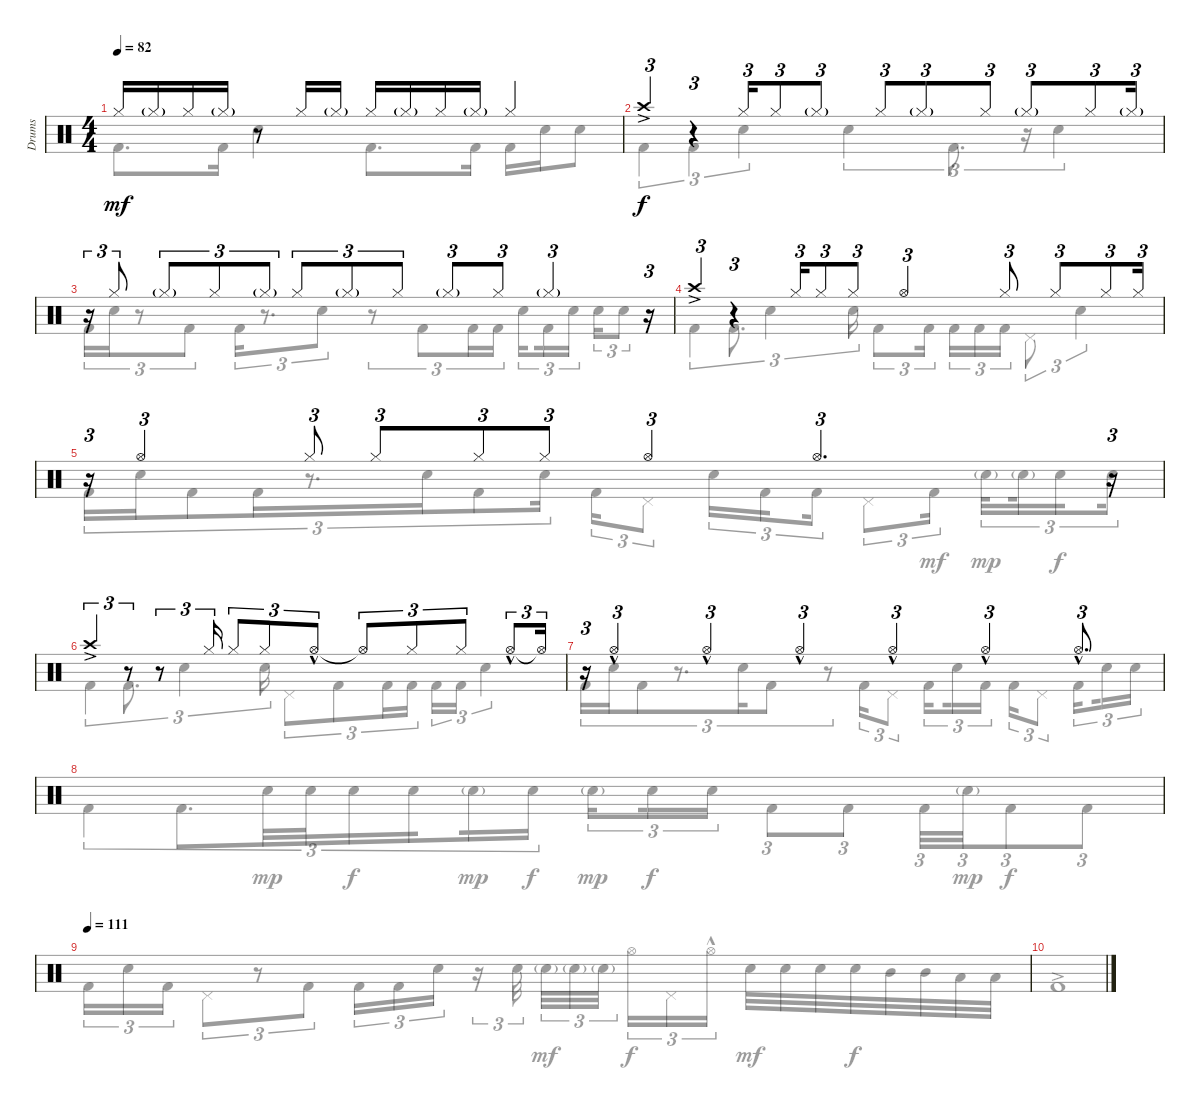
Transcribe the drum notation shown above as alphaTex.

\track ("Drums" "Drums") {instrument percussion}
\staff {score}
\articulation defaults
\voice
\ts (4 4)
\tempo 82
\clef neutral
\ks c "Hi-Hat (closed)".16{dy mf} "Hi-Hat (closed)"{g}.16 "Hi-Hat (closed)".16 "Hi-Hat (closed)"{g}.16
r.8 "Hi-Hat (closed)".16 "Hi-Hat (closed)"{g}.16 "Hi-Hat (closed)".16 "Hi-Hat (closed)"{g}.16 "Hi-Hat (closed)".16 "Hi-Hat (closed)"{g}.16 "Hi-Hat (closed)".4 |
"Crash high (hit)"{ac}.4{tu (3 2) dy f} r.4{tu (3 2)} "Hi-Hat (closed)".16{tu (3 2)} "Hi-Hat (closed)".8{tu (3 2)} "Hi-Hat (closed)"{g}.8{tu (3 2)} "Hi-Hat (closed)".8{tu (3 2)} "Hi-Hat (closed)"{g}.8{tu (3 2)} "Hi-Hat (closed)".8{tu (3 2)} "Hi-Hat (closed)"{g}.8{tu (3 2)} "Hi-Hat (closed)".8{tu (3 2)} "Hi-Hat (closed)"{g}.16{tu (3 2)} |
r.16{tu (3 2)} "Hi-Hat (closed)".8{tu (3 2)} "Hi-Hat (closed)"{g}.8{tu (3 2)} "Hi-Hat (closed)".8{tu (3 2)} "Hi-Hat (closed)"{g}.8{tu (3 2)} "Hi-Hat (closed)".8{tu (3 2)} "Hi-Hat (closed)"{g}.8{tu (3 2)} "Hi-Hat (closed)".8{tu (3 2)} "Hi-Hat (closed)"{g}.8{tu (3 2)} "Hi-Hat (closed)".8{tu (3 2)} "Hi-Hat (closed)"{g}.4{tu (3 2)} r.16{tu (3 2)} |
"Crash high (hit)"{ac}.4{tu (3 2)} r.4{tu (3 2)} "Hi-Hat (closed)".16{tu (3 2)} "Hi-Hat (closed)".8{tu (3 2)} "Hi-Hat (closed)".8{tu (3 2)} "Hi-Hat (open)".4{tu (3 2)} "Hi-Hat (closed)".8{tu (3 2)} "Hi-Hat (closed)".8{tu (3 2)} "Hi-Hat (closed)".8{tu (3 2)} "Hi-Hat (closed)".16{tu (3 2)} |
r.16{tu (3 2)} "Hi-Hat (open)".4{tu (3 2)} "Hi-Hat (closed)".8{tu (3 2)} "Hi-Hat (closed)".8{tu (3 2)} "Hi-Hat (closed)".8{tu (3 2)} "Hi-Hat (closed)".8{tu (3 2)} "Hi-Hat (open)".4{tu (3 2)} "Hi-Hat (open)".4{d tu (3 2)} r.16{tu (3 2)} |
"Crash high (hit)"{ac}.4{tu (3 2)} r.8{tu (3 2)} r.8{tu (3 2)} "Hi-Hat (closed)".16{tu (3 2)} "Hi-Hat (closed)".8{tu (3 2)} "Hi-Hat (closed)".8{tu (3 2)} "Hi-Hat (open)"{hac}.8{tu (3 2)} "Hi-Hat (open)"{t}.8{tu (3 2)} "Hi-Hat (closed)".8{tu (3 2)} "Hi-Hat (closed)".8{tu (3 2)} "Hi-Hat (open)"{hac}.8{tu (3 2)} "Hi-Hat (open)"{t}.16{tu (3 2)} |
r.16{tu (3 2)} "Hi-Hat (open)"{hac}.4{tu (3 2)} "Hi-Hat (open)"{hac}.4{tu (3 2)} "Hi-Hat (open)"{hac}.4{tu (3 2)} "Hi-Hat (open)"{hac}.4{tu (3 2)} "Hi-Hat (open)"{hac}.4{tu (3 2)} "Hi-Hat (open)"{hac}.8{d tu (3 2)} |
|
\tempo 111
|
|
\voice
\clef neutral
\ottava regular
\simile none
\ks c "Kick (hit) 2".8{d dy mf} "Kick (hit) 2".16 "Snare (hit) 2".4 "Kick (hit) 2".8{d} "Kick (hit) 2".16 "Kick (hit) 2".16 "Snare (hit) 2".16 "Snare (hit) 2".8
|
"Kick (hit) 2".4{tu (3 2) dy f} "Kick (hit) 2".4{tu (3 2)} "Snare (hit) 2".4{tu (3 2)} "Snare (hit) 2".4{tu (3 2)} "Kick (hit) 2".8{d tu (3 2)} r.16{tu (3 2)} "Snare (hit) 2".4{tu (3 2)} |
"Kick (hit) 2".16{tu (3 2)} "Snare (hit) 2".16{tu (3 2)} r.8{tu (3 2)} "Kick (hit) 2".8{tu (3 2)} "Kick (hit) 2".16{tu (3 2)} r.8{d tu (3 2)} "Snare (hit) 2".8{tu (3 2)} r.8{tu (3 2)} "Kick (hit) 2".8{tu (3 2)} "Kick (hit) 2".16{tu (3 2)} "Kick (hit) 2".16{tu (3 2)} "Snare (hit) 2".16{tu (3 2) beam splitsecondary} "Kick (hit) 2".16{tu (3 2)} "Snare (hit) 2".16{tu (3 2)} "Snare (hit) 2".16{tu (3 2)} "Snare (hit) 2".8{tu (3 2)} |
"Kick (hit) 2".4{tu (3 2)} "Kick (hit) 2".8{d tu (3 2)} "Snare (hit) 2".4{tu (3 2)} "Snare (hit) 2".16{tu (3 2)} "Kick (hit) 2".8{tu (3 2)} "Kick (hit) 2".16{tu (3 2)} "Kick (hit) 2".16{tu (3 2)} "Kick (hit) 2".16{tu (3 2)} "Kick (hit) 2".16{tu (3 2)} "Pedal Hi-Hat (hit)".8{tu (3 2)} "Snare (hit) 2".4{tu (3 2)} |
"Kick (hit) 2".16{tu (3 2)} "Snare (hit) 2".16{tu (3 2)} "Kick (hit) 2".8{tu (3 2)} "Kick (hit) 2".16{tu (3 2)} r.8{d tu (3 2)} "Snare (hit) 2".16{tu (3 2)} "Kick (hit) 2".8{tu (3 2)} "Snare (hit) 2".16{tu (3 2)} "Kick (hit) 2".16{tu (3 2)} "Pedal Hi-Hat (hit)".8{tu (3 2)} "Snare (hit) 2".16{tu (3 2)} "Kick (hit) 2".16{tu (3 2) beam splitsecondary} "Kick (hit) 2".16{tu (3 2)} "Pedal Hi-Hat (hit)".8{tu (3 2)} "Kick (hit) 2".16{tu (3 2) dy mf} "Snare (hit) 2"{g}.32{tu (3 2) dy mp beam splitsecondary} "Snare (hit) 2"{g}.32{tu (3 2)} "Snare (hit) 2".16{tu (3 2) dy f beam splitsecondary} "Snare (hit) 2".16{tu (3 2)} |
"Kick (hit) 2".4{tu (3 2)} "Kick (hit) 2".8{d tu (3 2)} "Snare (hit) 2".4{tu (3 2)} "Snare (hit) 2".16{tu (3 2)} "Pedal Hi-Hat (hit)".8{tu (3 2)} "Kick (hit) 2".8{tu (3 2)} "Kick (hit) 2".16{tu (3 2)} "Kick (hit) 2".16{tu (3 2)} "Kick (hit) 2".16{tu (3 2)} "Kick (hit) 2".16{tu (3 2)} "Snare (hit) 2".4{tu (3 2)} |
"Kick (hit) 2".16{tu (3 2)} "Snare (hit) 2".16{tu (3 2)} "Kick (hit) 2".8{tu (3 2)} r.8{d tu (3 2)} "Snare (hit) 2".16{tu (3 2)} "Kick (hit) 2".8{tu (3 2)} r.8{tu (3 2)} "Kick (hit) 2".16{tu (3 2)} "Pedal Hi-Hat (hit)".8{tu (3 2)} "Kick (hit) 2".16{tu (3 2) beam splitsecondary} "Snare (hit) 2".16{tu (3 2)} "Kick (hit) 2".16{tu (3 2)} "Kick (hit) 2".16{tu (3 2)} "Pedal Hi-Hat (hit)".8{tu (3 2)} "Kick (hit) 2".16{tu (3 2) beam splitsecondary} "Snare (hit) 2".16{tu (3 2)} "Snare (hit) 2".16{tu (3 2)} |
"Kick (hit) 2".4{tu (3 2)} "Kick (hit) 2".8{d tu (3 2)} "Snare (hit) 2".32{tu (3 2) dy mp} "Snare (hit) 2".32{tu (3 2)} "Snare (hit) 2".16{tu (3 2) dy f} "Snare (hit) 2".16{tu (3 2) beam splitsecondary} "Snare (hit) 2"{g}.16{tu (3 2) dy mp} "Snare (hit) 2".16{tu (3 2) dy f} "Snare (hit) 2"{g}.16{tu (3 2) dy mp beam splitsecondary} "Snare (hit) 2".16{tu (3 2) dy f} "Snare (hit) 2".16{tu (3 2)} "Kick (hit) 2".8{tu (3 2)} "Kick (hit) 2".8{tu (3 2)} "Kick (hit) 2".32{tu (3 2)} "Snare (hit) 2"{g}.32{tu (3 2) dy mp} "Kick (hit) 2".8{tu (3 2) dy f} "Kick (hit) 2".8{tu (3 2)} |
"Kick (hit) 2".16{tu (3 2)} "Snare (hit) 2".16{tu (3 2)} "Kick (hit) 2".16{tu (3 2)} "Pedal Hi-Hat (hit)".8{tu (3 2)} r.8{tu (3 2)} "Kick (hit) 2".8{tu (3 2)} "Kick (hit) 2".16{tu (3 2)} "Kick (hit) 2".16{tu (3 2)} "Snare (hit) 2".16{tu (3 2)} r.16{tu (3 2)} "Snare (hit) 2".32{tu (3 2) beam splitsecondary} "Snare (hit) 2"{g}.32{tu (3 2) dy mf} "Snare (hit) 2"{g}.32{tu (3 2)} "Snare (hit) 2"{g}.32{tu (3 2) beam splitsecondary} "Hi-Hat (open)".16{tu (3 2) dy f} "Pedal Hi-Hat (hit)".16{tu (3 2)} "Hi-Hat (open)"{hac}.16{tu (3 2)} "Snare (hit) 2".32{dy mf} "Snare (hit) 2".32 "Snare (hit) 2".32 "Snare (hit) 2".32{dy f} "Mid Tom (hit)".32 "Mid Tom (hit)".32 "Low Tom (hit)".32 "Low Tom (hit)".32 |
"Kick (hit) 2"{ac}.1 |
